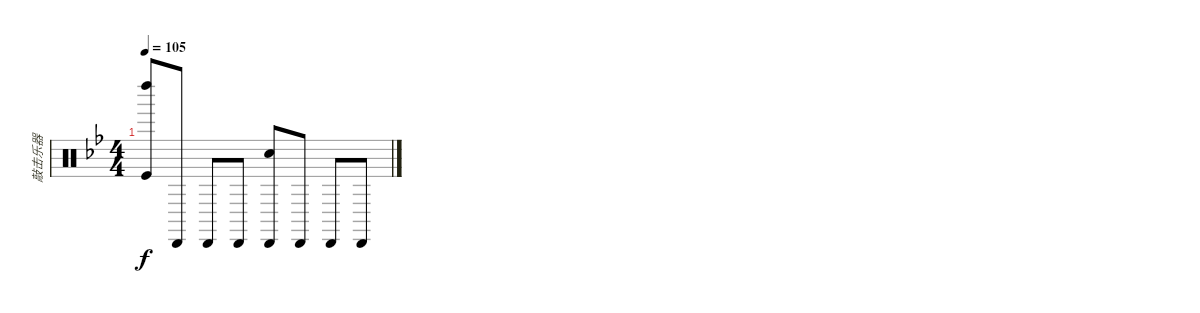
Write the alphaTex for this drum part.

\track ("敲击乐器" "敲击乐器") {instrument percussion}
\staff {score}
\articulation defaults
\ts (4 4)
\tempo 105
\clef neutral
\ks bb
("Left Maraca (hit)" "Kick (hit)").8{dy f} "Cabasa (hit)".8 "Cabasa (hit)".8 "Cabasa (hit)".8 ("Snare (hit) 2" "Cabasa (hit)").8 "Cabasa (hit)".8 "Cabasa (hit)".8 "Cabasa (hit)".8
